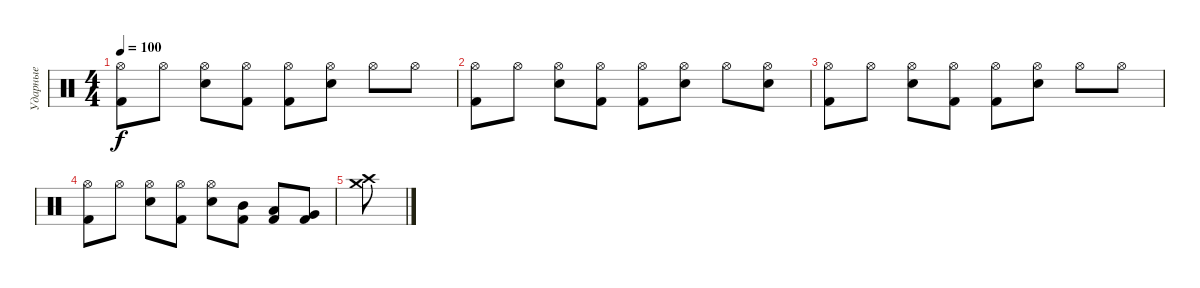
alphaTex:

\track ("Ударные" "Ударные") {instrument percussion}
\staff {score}
\articulation defaults
\ts (4 4)
\tempo 100
\clef neutral
\ks c
("Kick (hit) 2" "Hi-Hat (open)").8{dy f} "Hi-Hat (open)".8 ("Electric Snare (hit)" "Hi-Hat (open)").8 ("Kick (hit) 2" "Hi-Hat (open)").8 ("Kick (hit) 2" "Hi-Hat (open)").8 ("Electric Snare (hit)" "Hi-Hat (open)").8 "Hi-Hat (open)".8 "Hi-Hat (open)".8 |
("Kick (hit) 2" "Hi-Hat (open)").8 "Hi-Hat (open)".8 ("Electric Snare (hit)" "Hi-Hat (open)").8 ("Kick (hit) 2" "Hi-Hat (open)").8 ("Kick (hit) 2" "Hi-Hat (open)").8 ("Electric Snare (hit)" "Hi-Hat (open)").8 "Hi-Hat (open)".8 ("Electric Snare (hit)" "Hi-Hat (open)").8 |
("Kick (hit) 2" "Hi-Hat (open)").8 "Hi-Hat (open)".8 ("Electric Snare (hit)" "Hi-Hat (open)").8 ("Kick (hit) 2" "Hi-Hat (open)").8 ("Kick (hit) 2" "Hi-Hat (open)").8 ("Electric Snare (hit)" "Hi-Hat (open)").8 "Hi-Hat (open)".8 "Hi-Hat (open)".8 |
("Kick (hit) 2" "Hi-Hat (open)").8 "Hi-Hat (open)".8 ("Electric Snare (hit)" "Hi-Hat (open)").8 ("Kick (hit) 2" "Hi-Hat (open)").8 ("Electric Snare (hit)" "Hi-Hat (open)").8 ("Mid Tom (hit)" "Kick (hit) 2").8 ("Low Tom (hit)" "Kick (hit) 2").8 ("Very Low Tom (hit)" "Kick (hit) 2").8 |
("Crash high (hit)" "Crash medium (hit)").8
